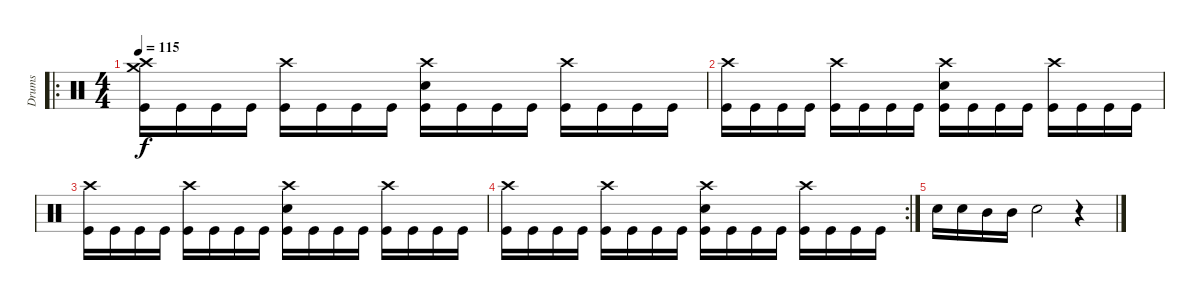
\track ("Drums" "Drums") {instrument percussion}
\staff
\articulation defaults
\ro
\ts (4 4)
\tempo 115
\clef neutral
\ks c
("Crash high (hit)" "Crash medium (hit)" "Kick (hit)").16{dy f} "Kick (hit)".16 "Kick (hit)".16 "Kick (hit)".16 ("Crash high (hit)" "Kick (hit)").16 "Kick (hit)".16 "Kick (hit)".16 "Kick (hit)".16 ("Crash high (hit)" "Snare (hit) 2" "Kick (hit)").16 "Kick (hit)".16 "Kick (hit)".16 "Kick (hit)".16 ("Crash high (hit)" "Kick (hit)").16 "Kick (hit)".16 "Kick (hit)".16 "Kick (hit)".16 |
("Crash high (hit)" "Kick (hit)").16 "Kick (hit)".16 "Kick (hit)".16 "Kick (hit)".16 ("Crash high (hit)" "Kick (hit)").16 "Kick (hit)".16 "Kick (hit)".16 "Kick (hit)".16 ("Crash high (hit)" "Snare (hit) 2" "Kick (hit)").16 "Kick (hit)".16 "Kick (hit)".16 "Kick (hit)".16 ("Crash high (hit)" "Kick (hit)").16 "Kick (hit)".16 "Kick (hit)".16 "Kick (hit)".16 |
("Crash high (hit)" "Kick (hit)").16 "Kick (hit)".16 "Kick (hit)".16 "Kick (hit)".16 ("Crash high (hit)" "Kick (hit)").16 "Kick (hit)".16 "Kick (hit)".16 "Kick (hit)".16 ("Crash high (hit)" "Snare (hit) 2" "Kick (hit)").16 "Kick (hit)".16 "Kick (hit)".16 "Kick (hit)".16 ("Crash high (hit)" "Kick (hit)").16 "Kick (hit)".16 "Kick (hit)".16 "Kick (hit)".16 |
\rc 2
("Crash high (hit)" "Kick (hit)").16 "Kick (hit)".16 "Kick (hit)".16 "Kick (hit)".16 ("Crash high (hit)" "Kick (hit)").16 "Kick (hit)".16 "Kick (hit)".16 "Kick (hit)".16 ("Crash high (hit)" "Snare (hit) 2" "Kick (hit)").16 "Kick (hit)".16 "Kick (hit)".16 "Kick (hit)".16 ("Crash high (hit)" "Kick (hit)").16 "Kick (hit)".16 "Kick (hit)".16 "Kick (hit)".16 |
"Snare (hit) 2".16 "Snare (hit) 2".16 "Mid Tom (hit)".16 "Mid Tom (hit)".16 "Snare (hit) 2".2 r.4
